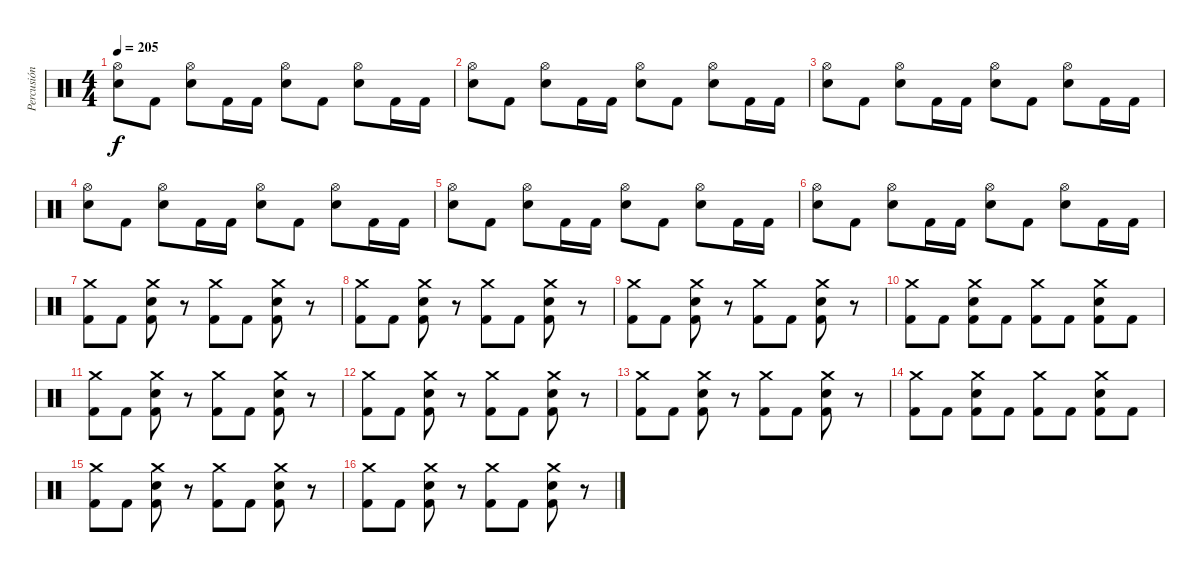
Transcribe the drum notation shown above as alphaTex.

\track ("Percusión" "Percusión") {instrument percussion}
\staff {score}
\articulation defaults
\ts (4 4)
\tempo 205
\clef neutral
\ks c
("Hi-Hat (open)" "Snare (hit) 2").8{dy f} "Kick (hit) 2".8 ("Hi-Hat (open)" "Snare (hit) 2").8 "Kick (hit) 2".16 "Kick (hit) 2".16 ("Hi-Hat (open)" "Snare (hit) 2").8 "Kick (hit) 2".8 ("Hi-Hat (open)" "Snare (hit) 2").8 "Kick (hit) 2".16 "Kick (hit) 2".16 |
("Hi-Hat (open)" "Snare (hit) 2").8 "Kick (hit) 2".8 ("Hi-Hat (open)" "Snare (hit) 2").8 "Kick (hit) 2".16 "Kick (hit) 2".16 ("Hi-Hat (open)" "Snare (hit) 2").8 "Kick (hit) 2".8 ("Hi-Hat (open)" "Snare (hit) 2").8 "Kick (hit) 2".16 "Kick (hit) 2".16 |
("Hi-Hat (open)" "Snare (hit) 2").8 "Kick (hit) 2".8 ("Hi-Hat (open)" "Snare (hit) 2").8 "Kick (hit) 2".16 "Kick (hit) 2".16 ("Hi-Hat (open)" "Snare (hit) 2").8 "Kick (hit) 2".8 ("Hi-Hat (open)" "Snare (hit) 2").8 "Kick (hit) 2".16 "Kick (hit) 2".16 |
("Hi-Hat (open)" "Snare (hit) 2").8 "Kick (hit) 2".8 ("Hi-Hat (open)" "Snare (hit) 2").8 "Kick (hit) 2".16 "Kick (hit) 2".16 ("Hi-Hat (open)" "Snare (hit) 2").8 "Kick (hit) 2".8 ("Hi-Hat (open)" "Snare (hit) 2").8 "Kick (hit) 2".16 "Kick (hit) 2".16 |
("Hi-Hat (open)" "Snare (hit) 2").8 "Kick (hit) 2".8 ("Hi-Hat (open)" "Snare (hit) 2").8 "Kick (hit) 2".16 "Kick (hit) 2".16 ("Hi-Hat (open)" "Snare (hit) 2").8 "Kick (hit) 2".8 ("Hi-Hat (open)" "Snare (hit) 2").8 "Kick (hit) 2".16 "Kick (hit) 2".16 |
("Hi-Hat (open)" "Snare (hit) 2").8 "Kick (hit) 2".8 ("Hi-Hat (open)" "Snare (hit) 2").8 "Kick (hit) 2".16 "Kick (hit) 2".16 ("Hi-Hat (open)" "Snare (hit) 2").8 "Kick (hit) 2".8 ("Hi-Hat (open)" "Snare (hit) 2").8 "Kick (hit) 2".16 "Kick (hit) 2".16 |
("Crash medium (hit)" "Kick (hit) 2").8 "Kick (hit) 2".8 ("Crash medium (hit)" "Snare (hit) 2" "Kick (hit) 2").8 r.8 ("Crash medium (hit)" "Kick (hit) 2").8 "Kick (hit) 2".8 ("Crash medium (hit)" "Snare (hit) 2" "Kick (hit) 2").8 r.8 |
("Crash medium (hit)" "Kick (hit) 2").8 "Kick (hit) 2".8 ("Crash medium (hit)" "Snare (hit) 2" "Kick (hit) 2").8 r.8 ("Crash medium (hit)" "Kick (hit) 2").8 "Kick (hit) 2".8 ("Crash medium (hit)" "Snare (hit) 2" "Kick (hit) 2").8 r.8 |
("Crash medium (hit)" "Kick (hit) 2").8 "Kick (hit) 2".8 ("Crash medium (hit)" "Snare (hit) 2" "Kick (hit) 2").8 r.8 ("Crash medium (hit)" "Kick (hit) 2").8 "Kick (hit) 2".8 ("Crash medium (hit)" "Snare (hit) 2" "Kick (hit) 2").8 r.8 |
("Crash medium (hit)" "Kick (hit) 2").8 "Kick (hit) 2".8 ("Crash medium (hit)" "Snare (hit) 2" "Kick (hit) 2").8 "Kick (hit) 2".8 ("Crash medium (hit)" "Kick (hit) 2").8 "Kick (hit) 2".8 ("Crash medium (hit)" "Snare (hit) 2" "Kick (hit) 2").8 "Kick (hit) 2".8 |
("Crash medium (hit)" "Kick (hit) 2").8 "Kick (hit) 2".8 ("Crash medium (hit)" "Snare (hit) 2" "Kick (hit) 2").8 r.8 ("Crash medium (hit)" "Kick (hit) 2").8 "Kick (hit) 2".8 ("Crash medium (hit)" "Snare (hit) 2" "Kick (hit) 2").8 r.8 |
("Crash medium (hit)" "Kick (hit) 2").8 "Kick (hit) 2".8 ("Crash medium (hit)" "Snare (hit) 2" "Kick (hit) 2").8 r.8 ("Crash medium (hit)" "Kick (hit) 2").8 "Kick (hit) 2".8 ("Crash medium (hit)" "Snare (hit) 2" "Kick (hit) 2").8 r.8 |
("Crash medium (hit)" "Kick (hit) 2").8 "Kick (hit) 2".8 ("Crash medium (hit)" "Snare (hit) 2" "Kick (hit) 2").8 r.8 ("Crash medium (hit)" "Kick (hit) 2").8 "Kick (hit) 2".8 ("Crash medium (hit)" "Snare (hit) 2" "Kick (hit) 2").8 r.8 |
("Crash medium (hit)" "Kick (hit) 2").8 "Kick (hit) 2".8 ("Crash medium (hit)" "Snare (hit) 2" "Kick (hit) 2").8 "Kick (hit) 2".8 ("Crash medium (hit)" "Kick (hit) 2").8 "Kick (hit) 2".8 ("Crash medium (hit)" "Snare (hit) 2" "Kick (hit) 2").8 "Kick (hit) 2".8 |
("Crash medium (hit)" "Kick (hit) 2").8 "Kick (hit) 2".8 ("Crash medium (hit)" "Snare (hit) 2" "Kick (hit) 2").8 r.8 ("Crash medium (hit)" "Kick (hit) 2").8 "Kick (hit) 2".8 ("Crash medium (hit)" "Snare (hit) 2" "Kick (hit) 2").8 r.8 |
("Crash medium (hit)" "Kick (hit) 2").8 "Kick (hit) 2".8 ("Crash medium (hit)" "Snare (hit) 2" "Kick (hit) 2").8 r.8 ("Crash medium (hit)" "Kick (hit) 2").8 "Kick (hit) 2".8 ("Crash medium (hit)" "Snare (hit) 2" "Kick (hit) 2").8 r.8
